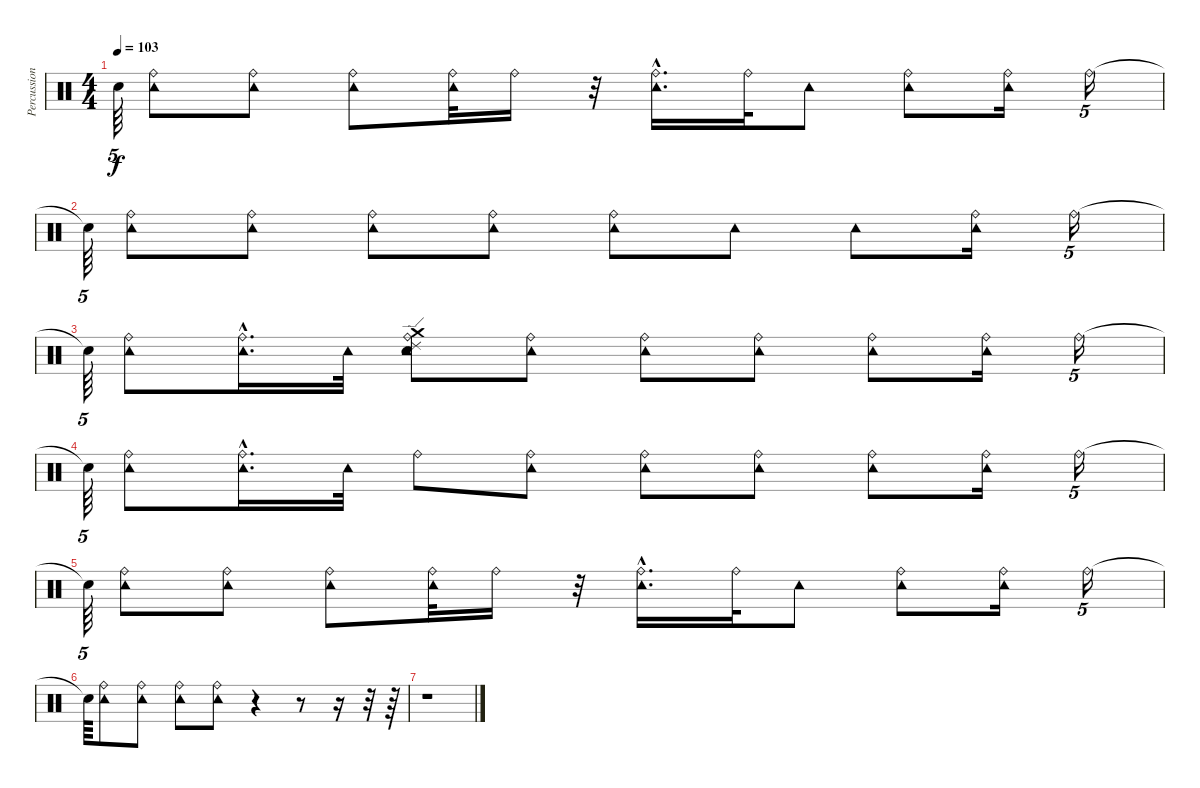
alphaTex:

\track ("Percussion" "Percussion") {instrument percussion}
\staff {score}
\articulation defaults
\ts (4 4)
\tempo 103
\clef neutral
\ks c "Snare (hit)"{t}.64{tu (5 4) dy f}
("Tambourine (hit)" "Ride (bell)").8 ("Tambourine (hit)" "Ride (bell)").8 ("Ride (bell)" "Tambourine (hit)").8 ("Ride (bell)" "Tambourine (hit)").32 "Ride (bell)".16 r.32 ("Ride (bell)"{hac} "Tambourine (hit)").16{d} "Ride (bell)".32 "Tambourine (hit)".8 ("Ride (bell)" "Tambourine (hit)").8 ("Ride (bell)" "Tambourine (hit)").16 "Ride (bell)".16{tu (5 4)} |
"Snare (hit)"{t}.64{tu (5 4)} ("Tambourine (hit)" "Ride (bell)").8 ("Ride (bell)" "Tambourine (hit)").8 ("Ride (bell)" "Tambourine (hit)").8 ("Ride (bell)" "Tambourine (hit)").8 ("Ride (bell)" "Tambourine (hit)").8 "Tambourine (hit)".8 "Tambourine (hit)".8 ("Ride (bell)" "Tambourine (hit)").16 "Ride (bell)".16{tu (5 4)} |
"Snare (hit)"{t}.64{tu (5 4)} ("Ride (bell)" "Tambourine (hit)").8 ("Ride (bell)" "Tambourine (hit)"{hac}).16{d} "Tambourine (hit)".32 ("Crash medium (hit)" "Tambourine (hit)" "Ride (edge) 2" "Electric Snare (hit)" "Ride (bell)").8 ("Ride (bell)" "Tambourine (hit)").8 ("Ride (bell)" "Tambourine (hit)").8 ("Ride (bell)" "Tambourine (hit)").8 ("Ride (bell)" "Tambourine (hit)").8 ("Ride (bell)" "Tambourine (hit)").16 "Ride (bell)".16{tu (5 4)} |
"Snare (hit)"{t}.64{tu (5 4)} ("Ride (bell)" "Tambourine (hit)").8 ("Ride (bell)" "Tambourine (hit)"{hac}).16{d} "Tambourine (hit)".32 "Ride (bell)".8 ("Ride (bell)" "Tambourine (hit)").8 ("Ride (bell)" "Tambourine (hit)").8 ("Ride (bell)" "Tambourine (hit)").8 ("Ride (bell)" "Tambourine (hit)").8 ("Ride (bell)" "Tambourine (hit)").16 "Ride (bell)".16{tu (5 4)} |
"Snare (hit)"{t}.64{tu (5 4)} ("Tambourine (hit)" "Ride (bell)").8 ("Tambourine (hit)" "Ride (bell)").8 ("Ride (bell)" "Tambourine (hit)").8 ("Ride (bell)" "Tambourine (hit)").32 "Ride (bell)".16 r.32 ("Ride (bell)"{hac} "Tambourine (hit)").16{d} "Ride (bell)".32 "Tambourine (hit)".8 ("Ride (bell)" "Tambourine (hit)").8 ("Ride (bell)" "Tambourine (hit)").16 "Ride (bell)".16{tu (5 4)} |
"Snare (hit)"{t}.64 ("Tambourine (hit)" "Ride (bell)").8 ("Ride (bell)" "Tambourine (hit)").8 ("Ride (bell)" "Tambourine (hit)").8 ("Ride (bell)" "Tambourine (hit)").8 r.4 r.8 r.16 r.32 r.64 |
r.1
